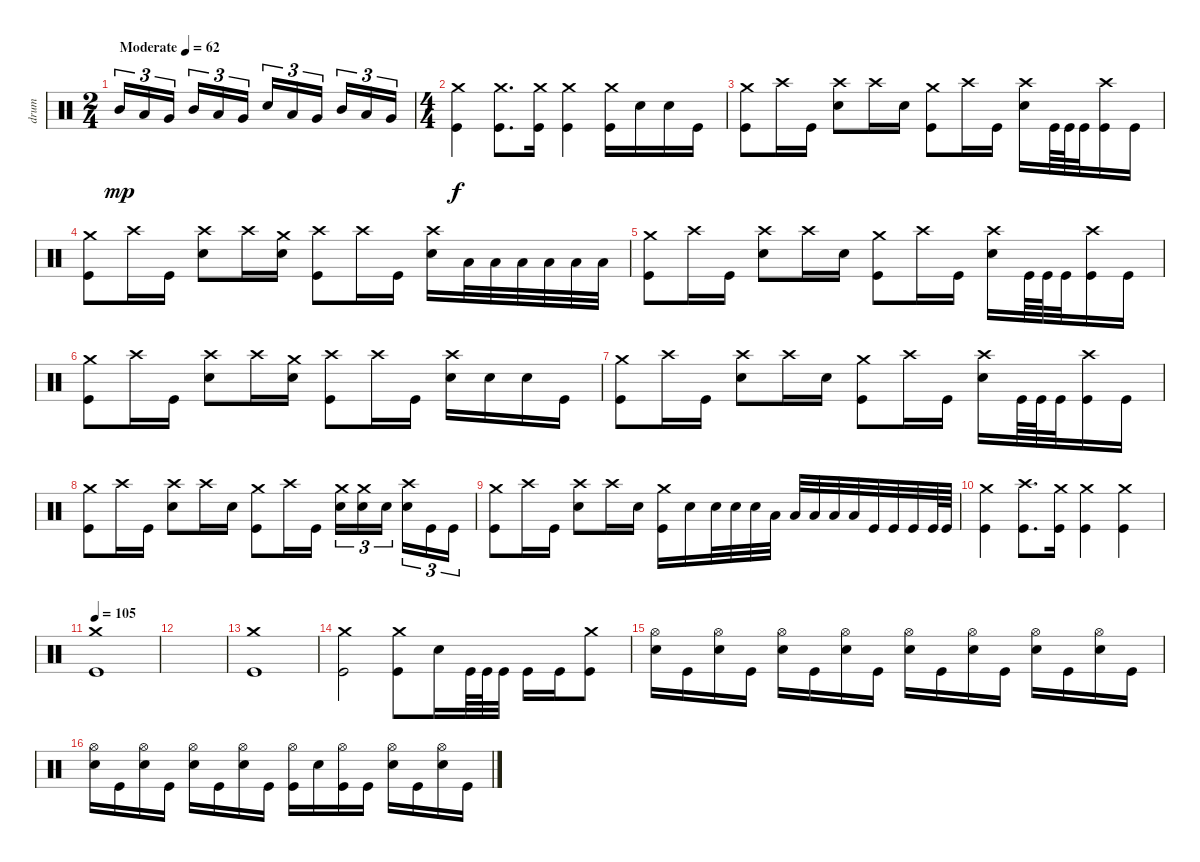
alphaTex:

\track ("drum" "drum") {instrument percussion}
\staff {score}
\articulation defaults
\ts (2 4)
\tempo (62 "Moderate")
\clef neutral
\ks c "Mid Tom (hit)".16{tu (3 2) dy mp} "Low Tom (hit)".16{tu (3 2)} "Very Low Tom (hit)".16{tu (3 2) beam splitsecondary} "Mid Tom (hit)".16{tu (3 2)} "Low Tom (hit)".16{tu (3 2)} "Very Low Tom (hit)".16{tu (3 2)} "Electric Snare (hit)".16{tu (3 2)} "Low Tom (hit)".16{tu (3 2)} "Very Low Tom (hit)".16{tu (3 2) beam splitsecondary} "Mid Tom (hit)".16{tu (3 2)} "Low Tom (hit)".16{tu (3 2)} "Very Low Tom (hit)".16{tu (3 2)}
|
\ts (4 4)
("Crash medium (hit)" "Kick (hit)").4{dy f} ("Crash medium (hit)" "Kick (hit)").8{d} ("Crash medium (hit)" "Kick (hit)").16 ("Crash medium (hit)" "Kick (hit)").4 ("Crash medium (hit)" "Kick (hit)").16 "Electric Snare (hit)".16 "Electric Snare (hit)".16 "Kick (hit)".16 |
("Crash medium (hit)" "Kick (hit)").8 "Crash high (hit)".16 "Kick (hit)".16 ("Crash high (hit)" "Electric Snare (hit)").8 "Crash high (hit)".16 "Electric Snare (hit)".16 ("Crash medium (hit)" "Kick (hit)").8 "Crash high (hit)".16 "Kick (hit)".16 ("Crash high (hit)" "Electric Snare (hit)").16 "Kick (hit)".64 "Kick (hit)".64 "Kick (hit)".32 ("Crash high (hit)" "Kick (hit)").16 "Kick (hit)".16 |
("Crash medium (hit)" "Kick (hit)").8 "Crash high (hit)".16 "Kick (hit)".16 ("Crash high (hit)" "Electric Snare (hit)").8 "Crash high (hit)".16 ("Crash medium (hit)" "Electric Snare (hit)").16 ("Crash high (hit)" "Kick (hit)").8 "Crash high (hit)".16 "Kick (hit)".16 ("Crash high (hit)" "Electric Snare (hit)").16 "Low Tom (hit)".32 "Low Tom (hit)".32 "Low Tom (hit)".32 "Low Tom (hit)".32 "Low Tom (hit)".32 "Low Tom (hit)".32 |
("Crash medium (hit)" "Kick (hit)").8 "Crash high (hit)".16 "Kick (hit)".16 ("Crash high (hit)" "Electric Snare (hit)").8 "Crash high (hit)".16 "Electric Snare (hit)".16 ("Crash medium (hit)" "Kick (hit)").8 "Crash high (hit)".16 "Kick (hit)".16 ("Crash high (hit)" "Electric Snare (hit)").16 "Kick (hit)".64 "Kick (hit)".64 "Kick (hit)".32 ("Crash high (hit)" "Kick (hit)").16 "Kick (hit)".16 |
("Crash medium (hit)" "Kick (hit)").8 "Crash high (hit)".16 "Kick (hit)".16 ("Crash high (hit)" "Electric Snare (hit)").8 "Crash high (hit)".16 ("Crash medium (hit)" "Electric Snare (hit)").16 ("Crash high (hit)" "Kick (hit)").8 "Crash high (hit)".16 "Kick (hit)".16 ("Crash high (hit)" "Electric Snare (hit)").16 "Electric Snare (hit)".16 "Electric Snare (hit)".16 "Kick (hit)".16 |
("Crash medium (hit)" "Kick (hit)").8 "Crash high (hit)".16 "Kick (hit)".16 ("Crash high (hit)" "Electric Snare (hit)").8 "Crash high (hit)".16 "Electric Snare (hit)".16 ("Crash medium (hit)" "Kick (hit)").8 "Crash high (hit)".16 "Kick (hit)".16 ("Crash high (hit)" "Electric Snare (hit)").16 "Kick (hit)".64 "Kick (hit)".64 "Kick (hit)".32 ("Crash high (hit)" "Kick (hit)").16 "Kick (hit)".16 |
("Crash medium (hit)" "Kick (hit)").8 "Crash high (hit)".16 "Kick (hit)".16 ("Crash high (hit)" "Electric Snare (hit)").8 "Crash high (hit)".16 "Electric Snare (hit)".16 ("Crash medium (hit)" "Kick (hit)").8 "Crash high (hit)".16 "Kick (hit)".16 ("Crash medium (hit)" "Electric Snare (hit)").16{tu (3 2)} ("Crash medium (hit)" "Electric Snare (hit)").16{tu (3 2)} "Electric Snare (hit)".16{tu (3 2) beam splitsecondary} ("Crash high (hit)" "Electric Snare (hit)").16{tu (3 2)} "Kick (hit)".16{tu (3 2)} "Kick (hit)".16{tu (3 2)} |
("Crash medium (hit)" "Kick (hit)").8 "Crash high (hit)".16 "Kick (hit)".16 ("Crash high (hit)" "Electric Snare (hit)").8 "Crash high (hit)".16 "Electric Snare (hit)".16 ("Crash medium (hit)" "Kick (hit)").16 "Electric Snare (hit)".16 "Electric Snare (hit)".32 "Electric Snare (hit)".32 "Electric Snare (hit)".32 "Low Tom (hit)".32 "Low Tom (hit)".32 "Low Tom (hit)".32 "Low Tom (hit)".32 "Low Tom (hit)".32 "Kick (hit)".32 "Kick (hit)".32 "Kick (hit)".32 "Kick (hit)".64 "Kick (hit)".64 |
("Crash medium (hit)" "Kick (hit)").4 ("Crash high (hit)" "Kick (hit)").8{d} ("Crash medium (hit)" "Kick (hit)").16 ("Crash medium (hit)" "Kick (hit)").4 ("Crash medium (hit)" "Kick (hit)").4 |
\tempo 105
("Crash medium (hit)" "Kick (hit)").1 |
|
("Crash medium (hit)" "Kick (hit)").1 |
("Crash medium (hit)" "Kick (hit)").2 ("Crash medium (hit)" "Kick (hit)").8 "Electric Snare (hit)".16 "Kick (hit)".64 "Kick (hit)".64 "Kick (hit)".32 "Kick (hit)".16 "Kick (hit)".16 ("Crash medium (hit)" "Kick (hit)").8 |
("Hi-Hat (open)" "Electric Snare (hit)").16 "Kick (hit)".16 ("Hi-Hat (open)" "Electric Snare (hit)").16 "Kick (hit)".16 ("Hi-Hat (open)" "Electric Snare (hit)").16 "Kick (hit)".16 ("Hi-Hat (open)" "Electric Snare (hit)").16 "Kick (hit)".16 ("Hi-Hat (open)" "Electric Snare (hit)").16 "Kick (hit)".16 ("Hi-Hat (open)" "Electric Snare (hit)").16 "Kick (hit)".16 ("Hi-Hat (open)" "Electric Snare (hit)").16 "Kick (hit)".16 ("Hi-Hat (open)" "Electric Snare (hit)").16 "Kick (hit)".16 |
("Hi-Hat (open)" "Electric Snare (hit)").16 "Kick (hit)".16 ("Hi-Hat (open)" "Electric Snare (hit)").16 "Kick (hit)".16 ("Hi-Hat (open)" "Electric Snare (hit)").16 "Kick (hit)".16 ("Hi-Hat (open)" "Electric Snare (hit)").16 "Kick (hit)".16 ("Hi-Hat (open)" "Kick (hit)").16 "Electric Snare (hit)".16 ("Hi-Hat (open)" "Kick (hit)").16 "Kick (hit)".16 ("Hi-Hat (open)" "Electric Snare (hit)").16 "Kick (hit)".16 ("Hi-Hat (open)" "Electric Snare (hit)").16 "Kick (hit)".16
